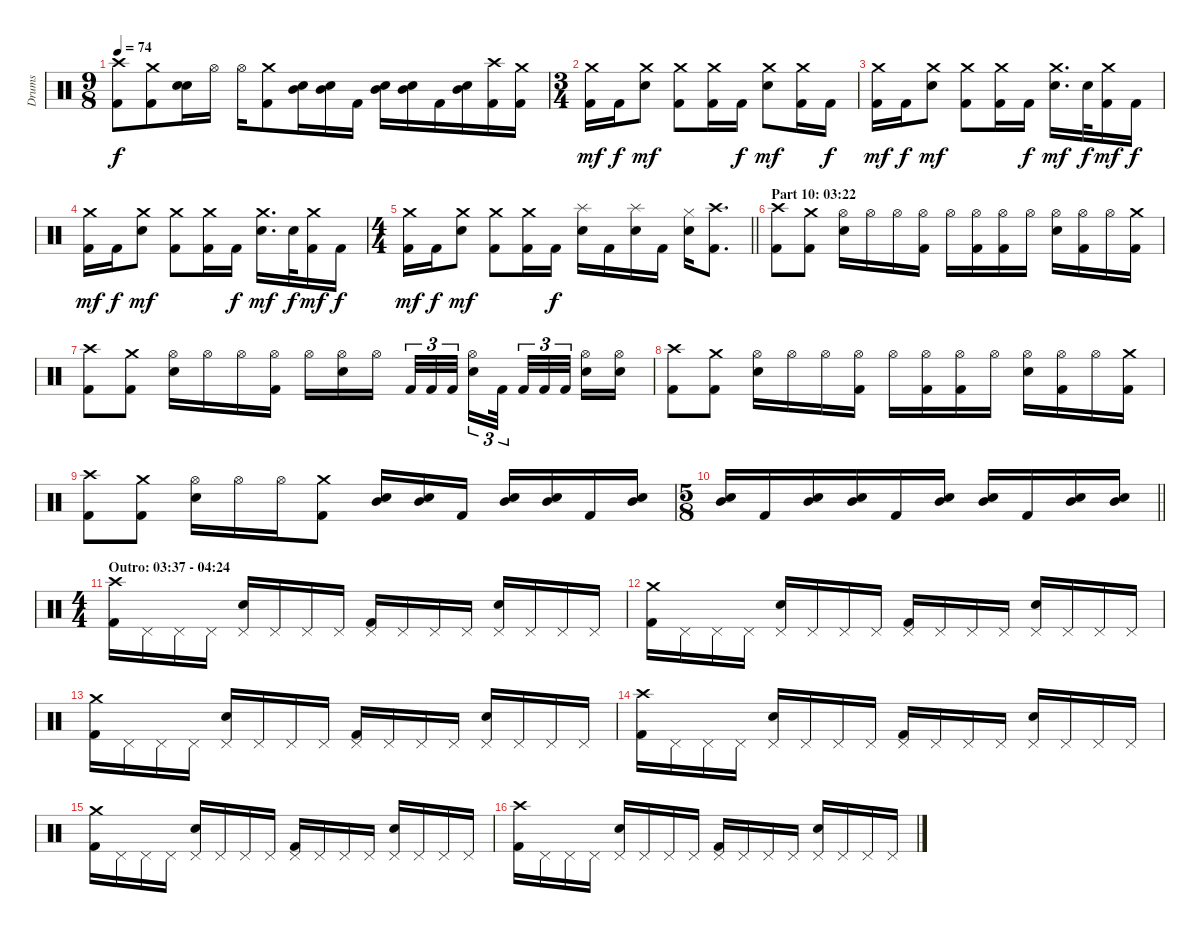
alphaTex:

\track ("Drums" "Drums") {instrument percussion}
\staff {score}
\articulation defaults
\ts (9 8)
\tempo 74
\clef neutral
\ks c
("Crash high (hit)" "Kick (hit) 2").8{dy f} ("Crash medium (hit)" "Kick (hit) 2").8 ("Electric Snare (hit)" "Electric Snare (hit)").16{bd 120} "Hi-Hat (open)".16 "Hi-Hat (open)".16 ("Crash medium (hit)" "Kick (hit) 2").8 ("Mid Tom (hit)" "Electric Snare (hit)").16 ("Mid Tom (hit)" "Electric Snare (hit)").16 "Kick (hit) 2".16 ("Mid Tom (hit)" "Electric Snare (hit)").16 ("Mid Tom (hit)" "Electric Snare (hit)").16 "Kick (hit) 2".16 ("Mid Tom (hit)" "Electric Snare (hit)").16 ("Crash high (hit)" "Kick (hit) 2").16 ("Crash medium (hit)" "Kick (hit) 2").16 |
\ts (3 4)
("Crash medium (hit)" "Kick (hit) 2").16{dy mf} "Kick (hit) 2".16{dy f} ("Crash medium (hit)" "Electric Snare (hit)").8{dy mf} ("Crash medium (hit)" "Kick (hit) 2").8 ("Crash medium (hit)" "Kick (hit) 2").16 "Kick (hit) 2".16{dy f} ("Crash medium (hit)" "Electric Snare (hit)").8{dy mf} ("Crash medium (hit)" "Kick (hit) 2").16 "Kick (hit) 2".16{dy f} |
("Crash medium (hit)" "Kick (hit) 2").16{dy mf} "Kick (hit) 2".16{dy f} ("Crash medium (hit)" "Electric Snare (hit)").8{dy mf} ("Crash medium (hit)" "Kick (hit) 2").8 ("Crash medium (hit)" "Kick (hit) 2").16 "Kick (hit) 2".16{dy f} ("Crash medium (hit)" "Electric Snare (hit)").16{d dy mf} "Electric Snare (hit)".32{dy f} ("Crash medium (hit)" "Kick (hit) 2").16{dy mf} "Kick (hit) 2".16{dy f} |
("Crash medium (hit)" "Kick (hit) 2").16{dy mf} "Kick (hit) 2".16{dy f} ("Crash medium (hit)" "Electric Snare (hit)").8{dy mf} ("Crash medium (hit)" "Kick (hit) 2").8 ("Crash medium (hit)" "Kick (hit) 2").16 "Kick (hit) 2".16{dy f} ("Crash medium (hit)" "Electric Snare (hit)").16{d dy mf} "Electric Snare (hit)".32{dy f} ("Crash medium (hit)" "Kick (hit) 2").16{dy mf} "Kick (hit) 2".16{dy f} |
\ts (4 4)
\barLineRight lightlight
("Crash medium (hit)" "Kick (hit) 2").16{dy mf} "Kick (hit) 2".16{dy f} ("Crash medium (hit)" "Electric Snare (hit)").8{dy mf} ("Crash medium (hit)" "Kick (hit) 2").8 ("Crash medium (hit)" "Kick (hit) 2").16 "Kick (hit) 2".16{dy f} ("Splash (hit)" "Electric Snare (hit)").16 "Kick (hit) 2".16 ("Splash (hit)" "Electric Snare (hit)").16 "Kick (hit) 2".16 ("Hi-Hat (closed)" "Electric Snare (hit)").16 ("Crash high (hit)" "Kick (hit) 2").8{d} |
\section ("" "Part 10: 03:22")
("Crash high (hit)" "Kick (hit) 2").8 ("Crash medium (hit)" "Kick (hit) 2").8 ("Hi-Hat (open)" "Electric Snare (hit)").16 "Hi-Hat (open)".16 "Hi-Hat (open)".16 ("Hi-Hat (open)" "Kick (hit) 2").16 "Hi-Hat (open)".16 ("Hi-Hat (open)" "Kick (hit) 2").16 ("Hi-Hat (open)" "Kick (hit) 2").16 "Hi-Hat (open)".16 ("Hi-Hat (open)" "Electric Snare (hit)").16 ("Hi-Hat (open)" "Kick (hit) 2").16 "Hi-Hat (open)".16 ("Crash medium (hit)" "Kick (hit) 2").16 |
("Crash high (hit)" "Kick (hit) 2").8 ("Crash medium (hit)" "Kick (hit) 2").8 ("Hi-Hat (open)" "Electric Snare (hit)").16 "Hi-Hat (open)".16 "Hi-Hat (open)".16 ("Hi-Hat (open)" "Kick (hit) 2").16 "Hi-Hat (open)".16 ("Hi-Hat (open)" "Electric Snare (hit)").16 "Hi-Hat (open)".16{beam splitsecondary} "Kick (hit) 2".32{tu (3 2)} "Kick (hit) 2".32{tu (3 2)} "Kick (hit) 2".32{tu (3 2)} ("Hi-Hat (open)" "Electric Snare (hit)").16{tu (3 2)} "Kick (hit) 2".32{tu (3 2) beam splitsecondary} "Kick (hit) 2".32{tu (3 2)} "Kick (hit) 2".32{tu (3 2)} "Kick (hit) 2".32{tu (3 2) beam splitsecondary} ("Hi-Hat (open)" "Electric Snare (hit)").16 ("Hi-Hat (open)" "Electric Snare (hit)").16 |
("Crash high (hit)" "Kick (hit) 2").8 ("Crash medium (hit)" "Kick (hit) 2").8 ("Hi-Hat (open)" "Electric Snare (hit)").16 "Hi-Hat (open)".16 "Hi-Hat (open)".16 ("Hi-Hat (open)" "Kick (hit) 2").16 "Hi-Hat (open)".16 ("Hi-Hat (open)" "Kick (hit) 2").16 ("Hi-Hat (open)" "Kick (hit) 2").16 "Hi-Hat (open)".16 ("Hi-Hat (open)" "Electric Snare (hit)").16 ("Hi-Hat (open)" "Kick (hit) 2").16 "Hi-Hat (open)".16 ("Crash medium (hit)" "Kick (hit) 2").16 |
("Crash high (hit)" "Kick (hit) 2").8 ("Crash medium (hit)" "Kick (hit) 2").8 ("Hi-Hat (open)" "Electric Snare (hit)").16 "Hi-Hat (open)".16 "Hi-Hat (open)".16 ("Crash medium (hit)" "Kick (hit) 2").8 ("Mid Tom (hit)" "Electric Snare (hit)").16 ("Mid Tom (hit)" "Electric Snare (hit)").16 "Kick (hit) 2".16 ("Mid Tom (hit)" "Electric Snare (hit)").16 ("Mid Tom (hit)" "Electric Snare (hit)").16 "Kick (hit) 2".16 ("Mid Tom (hit)" "Electric Snare (hit)").16 |
\ts (5 8)
\barLineRight lightlight
("Mid Tom (hit)" "Electric Snare (hit)").16 "Kick (hit) 2".16 ("Mid Tom (hit)" "Electric Snare (hit)").16 ("Mid Tom (hit)" "Electric Snare (hit)").16 "Kick (hit) 2".16 ("Mid Tom (hit)" "Electric Snare (hit)").16 ("Mid Tom (hit)" "Electric Snare (hit)").16 "Kick (hit) 2".16 ("Mid Tom (hit)" "Electric Snare (hit)").16 ("Mid Tom (hit)" "Electric Snare (hit)").16 |
\ts (4 4)
\section ("" "Outro: 03:37 - 04:24")
("Crash high (hit)" "Kick (hit) 2").16 "Pedal Hi-Hat (hit)".16 "Pedal Hi-Hat (hit)".16 "Pedal Hi-Hat (hit)".16 ("Pedal Hi-Hat (hit)" "Electric Snare (hit)").16 "Pedal Hi-Hat (hit)".16 "Pedal Hi-Hat (hit)".16 "Pedal Hi-Hat (hit)".16 ("Pedal Hi-Hat (hit)" "Kick (hit) 2").16 "Pedal Hi-Hat (hit)".16 "Pedal Hi-Hat (hit)".16 "Pedal Hi-Hat (hit)".16 ("Pedal Hi-Hat (hit)" "Electric Snare (hit)").16 "Pedal Hi-Hat (hit)".16 "Pedal Hi-Hat (hit)".16 "Pedal Hi-Hat (hit)".16 |
("Crash medium (hit)" "Kick (hit) 2").16 "Pedal Hi-Hat (hit)".16 "Pedal Hi-Hat (hit)".16 "Pedal Hi-Hat (hit)".16 ("Pedal Hi-Hat (hit)" "Electric Snare (hit)").16 "Pedal Hi-Hat (hit)".16 "Pedal Hi-Hat (hit)".16 "Pedal Hi-Hat (hit)".16 ("Pedal Hi-Hat (hit)" "Kick (hit) 2").16 "Pedal Hi-Hat (hit)".16 "Pedal Hi-Hat (hit)".16 "Pedal Hi-Hat (hit)".16 ("Pedal Hi-Hat (hit)" "Electric Snare (hit)").16 "Pedal Hi-Hat (hit)".16 "Pedal Hi-Hat (hit)".16 "Pedal Hi-Hat (hit)".16 |
("Crash medium (hit)" "Kick (hit) 2").16 "Pedal Hi-Hat (hit)".16 "Pedal Hi-Hat (hit)".16 "Pedal Hi-Hat (hit)".16 ("Pedal Hi-Hat (hit)" "Electric Snare (hit)").16 "Pedal Hi-Hat (hit)".16 "Pedal Hi-Hat (hit)".16 "Pedal Hi-Hat (hit)".16 ("Pedal Hi-Hat (hit)" "Kick (hit) 2").16 "Pedal Hi-Hat (hit)".16 "Pedal Hi-Hat (hit)".16 "Pedal Hi-Hat (hit)".16 ("Pedal Hi-Hat (hit)" "Electric Snare (hit)").16 "Pedal Hi-Hat (hit)".16 "Pedal Hi-Hat (hit)".16 "Pedal Hi-Hat (hit)".16 |
("Crash high (hit)" "Kick (hit) 2").16 "Pedal Hi-Hat (hit)".16 "Pedal Hi-Hat (hit)".16 "Pedal Hi-Hat (hit)".16 ("Pedal Hi-Hat (hit)" "Electric Snare (hit)").16 "Pedal Hi-Hat (hit)".16 "Pedal Hi-Hat (hit)".16 "Pedal Hi-Hat (hit)".16 ("Pedal Hi-Hat (hit)" "Kick (hit) 2").16 "Pedal Hi-Hat (hit)".16 "Pedal Hi-Hat (hit)".16 "Pedal Hi-Hat (hit)".16 ("Pedal Hi-Hat (hit)" "Electric Snare (hit)").16 "Pedal Hi-Hat (hit)".16 "Pedal Hi-Hat (hit)".16 "Pedal Hi-Hat (hit)".16 |
("Crash medium (hit)" "Kick (hit) 2").16 "Pedal Hi-Hat (hit)".16 "Pedal Hi-Hat (hit)".16 "Pedal Hi-Hat (hit)".16 ("Pedal Hi-Hat (hit)" "Electric Snare (hit)").16 "Pedal Hi-Hat (hit)".16 "Pedal Hi-Hat (hit)".16 "Pedal Hi-Hat (hit)".16 ("Pedal Hi-Hat (hit)" "Kick (hit) 2").16 "Pedal Hi-Hat (hit)".16 "Pedal Hi-Hat (hit)".16 "Pedal Hi-Hat (hit)".16 ("Pedal Hi-Hat (hit)" "Electric Snare (hit)").16 "Pedal Hi-Hat (hit)".16 "Pedal Hi-Hat (hit)".16 "Pedal Hi-Hat (hit)".16 |
("Crash high (hit)" "Kick (hit) 2").16 "Pedal Hi-Hat (hit)".16 "Pedal Hi-Hat (hit)".16 "Pedal Hi-Hat (hit)".16 ("Pedal Hi-Hat (hit)" "Electric Snare (hit)").16 "Pedal Hi-Hat (hit)".16 "Pedal Hi-Hat (hit)".16 "Pedal Hi-Hat (hit)".16 ("Pedal Hi-Hat (hit)" "Kick (hit) 2").16 "Pedal Hi-Hat (hit)".16 "Pedal Hi-Hat (hit)".16 "Pedal Hi-Hat (hit)".16 ("Pedal Hi-Hat (hit)" "Electric Snare (hit)").16 "Pedal Hi-Hat (hit)".16 "Pedal Hi-Hat (hit)".16 "Pedal Hi-Hat (hit)".16
